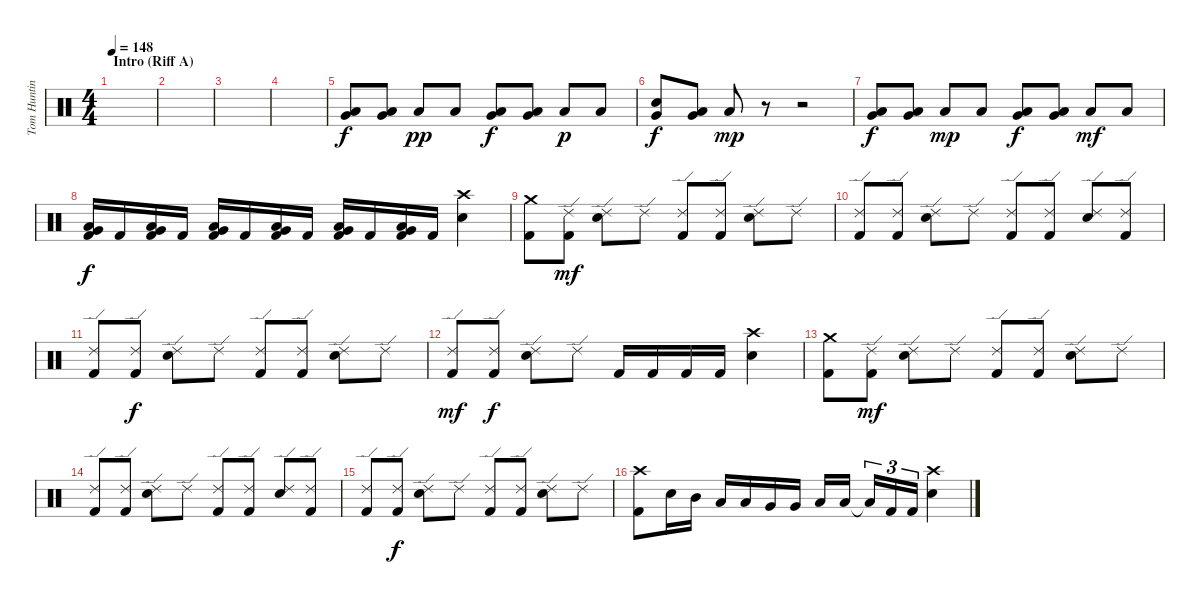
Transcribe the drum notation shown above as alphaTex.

\track ("Tom Hunting" "Tom Huntin") {instrument percussion}
\staff {score}
\articulation defaults
\ts (4 4)
\section ("" "Intro (Riff A)")
\tempo 148
\clef neutral
\ks c
|
|
|
|
("Low Tom (hit)" "Very Low Tom (hit)").8 ("Low Tom (hit)" "Very Low Tom (hit)").8 "Low Floor Tom (hit)".8{dy pp} "Low Floor Tom (hit)".8 ("Low Tom (hit)" "Very Low Tom (hit)").8{dy f} ("Low Tom (hit)" "Very Low Tom (hit)").8 "Low Floor Tom (hit)".8{dy p} "Low Floor Tom (hit)".8 |
("Snare (hit) 2" "Very Low Tom (hit)").8{dy f} ("Low Tom (hit)" "Very Low Tom (hit)").8 "Low Floor Tom (hit)".8{dy mp} r.8 r.2 |
("Low Tom (hit)" "Very Low Tom (hit)").8{dy f} ("Low Tom (hit)" "Very Low Tom (hit)").8 "Low Floor Tom (hit)".8{dy mp} "Low Floor Tom (hit)".8 ("Low Tom (hit)" "Very Low Tom (hit)").8{dy f} ("Low Tom (hit)" "Very Low Tom (hit)").8 "Low Floor Tom (hit)".8{dy mf} "Low Floor Tom (hit)".8 |
("Kick (hit) 2" "Low Tom (hit)" "Very Low Tom (hit)").16{dy f} "Kick (hit) 2".16 ("Kick (hit) 2" "Low Tom (hit)" "Very Low Tom (hit)").16 "Kick (hit) 2".16 ("Kick (hit) 2" "Low Tom (hit)" "Very Low Tom (hit)").16 "Kick (hit) 2".16 ("Kick (hit) 2" "Low Tom (hit)" "Very Low Tom (hit)").16 "Kick (hit) 2".16 ("Kick (hit) 2" "Low Tom (hit)" "Very Low Tom (hit)").16 "Kick (hit) 2".16 ("Kick (hit) 2" "Low Tom (hit)" "Very Low Tom (hit)").16 "Kick (hit) 2".16 ("Crash high (hit)" "Snare (hit) 2").4 |
("Kick (hit) 2" "Crash medium (hit)").8 ("Kick (hit) 2" "Ride (edge) 2").8{dy mf} ("Ride (edge) 2" "Snare (hit) 2").8 "Ride (edge) 2".8 ("Kick (hit) 2" "Ride (edge) 2").8 ("Kick (hit) 2" "Ride (edge) 2").8 ("Ride (edge) 2" "Snare (hit) 2").8 "Ride (edge) 2".8 |
("Kick (hit) 2" "Ride (edge) 2").8 ("Kick (hit) 2" "Ride (edge) 2").8 ("Ride (edge) 2" "Snare (hit) 2").8 "Ride (edge) 2".8 ("Kick (hit) 2" "Ride (edge) 2").8 ("Kick (hit) 2" "Ride (edge) 2").8 ("Ride (edge) 2" "Snare (hit) 2").8 ("Kick (hit) 2" "Ride (edge) 2").8 |
("Kick (hit) 2" "Ride (edge) 2").8 ("Kick (hit) 2" "Ride (edge) 2").8{dy f} ("Ride (edge) 2" "Snare (hit) 2").8 "Ride (edge) 2".8 ("Kick (hit) 2" "Ride (edge) 2").8 ("Kick (hit) 2" "Ride (edge) 2").8 ("Ride (edge) 2" "Snare (hit) 2").8 "Ride (edge) 2".8 |
("Kick (hit) 2" "Ride (edge) 2").8{dy mf} ("Kick (hit) 2" "Ride (edge) 2").8{dy f} ("Ride (edge) 2" "Snare (hit) 2").8 "Ride (edge) 2".8 "Kick (hit) 2".16 "Kick (hit) 2".16 "Kick (hit) 2".16 "Kick (hit) 2".16 ("Crash high (hit)" "Snare (hit) 2").4 |
("Kick (hit) 2" "Crash medium (hit)").8 ("Kick (hit) 2" "Ride (edge) 2").8{dy mf} ("Ride (edge) 2" "Snare (hit) 2").8 "Ride (edge) 2".8 ("Kick (hit) 2" "Ride (edge) 2").8 ("Kick (hit) 2" "Ride (edge) 2").8 ("Ride (edge) 2" "Snare (hit) 2").8 "Ride (edge) 2".8 |
("Kick (hit) 2" "Ride (edge) 2").8 ("Kick (hit) 2" "Ride (edge) 2").8 ("Ride (edge) 2" "Snare (hit) 2").8 "Ride (edge) 2".8 ("Kick (hit) 2" "Ride (edge) 2").8 ("Kick (hit) 2" "Ride (edge) 2").8 ("Ride (edge) 2" "Snare (hit) 2").8 ("Kick (hit) 2" "Ride (edge) 2").8 |
("Kick (hit) 2" "Ride (edge) 2").8 ("Kick (hit) 2" "Ride (edge) 2").8{dy f} ("Ride (edge) 2" "Snare (hit) 2").8 "Ride (edge) 2".8 ("Kick (hit) 2" "Ride (edge) 2").8 ("Kick (hit) 2" "Ride (edge) 2").8 ("Ride (edge) 2" "Snare (hit) 2").8 "Ride (edge) 2".8 |
("Kick (hit) 2" "Crash high (hit)").8 "Snare (hit) 2".16 "Mid Tom (hit)".16 "Low Tom (hit)".16 "Low Tom (hit)".16 "Very Low Tom (hit)".16 "Very Low Tom (hit)".16 "Low Floor Tom (hit)".16 "Low Floor Tom (hit)".16 "Low Floor Tom (hit)"{t}.16{tu (3 2)} "Kick (hit) 2".16{tu (3 2)} "Kick (hit) 2".16{tu (3 2)} ("Crash high (hit)" "Snare (hit) 2").4
